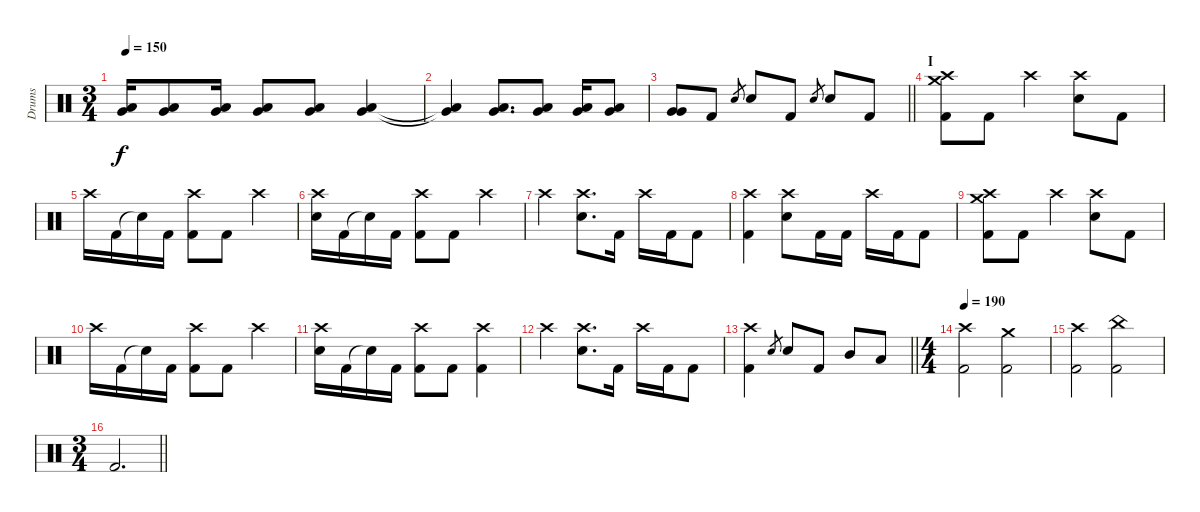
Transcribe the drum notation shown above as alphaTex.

\track ("Drums" "Drums") {instrument percussion}
\staff {score}
\articulation defaults
\ts (3 4)
\tempo 150
\clef neutral
\ks c
("Very Low Tom (hit)" "Low Floor Tom (hit)").16{bu 120 dy f} ("Very Low Tom (hit)" "Low Floor Tom (hit)").8{bu 120} ("Very Low Tom (hit)" "Low Floor Tom (hit)").16{bu 120} ("Very Low Tom (hit)" "Low Floor Tom (hit)").8{bu 120} ("Very Low Tom (hit)" "Low Floor Tom (hit)").8{bu 120} ("Very Low Tom (hit)" "Low Floor Tom (hit)").4{bu 120} |
("Very Low Tom (hit)"{t} "Low Floor Tom (hit)"{t}).4{bu 120} ("Very Low Tom (hit)" "Low Floor Tom (hit)").8{d bu 120} ("Very Low Tom (hit)" "Low Floor Tom (hit)").8{bu 120} ("Very Low Tom (hit)" "Low Floor Tom (hit)").16{bu 120} ("Very Low Tom (hit)" "Low Floor Tom (hit)").8{bu 120} |
\barLineRight lightlight
("Very Low Tom (hit)" "Very Low Tom (hit)").8{bu 120} "Kick (hit) 2".8 "Electric Snare (hit)".8{gr} "Electric Snare (hit)".8 "Kick (hit) 2".8 "Electric Snare (hit)".8{gr} "Electric Snare (hit)".8 "Kick (hit) 2".8 |
\section ("" "I")
("Crash medium (hit)" "Crash high (hit)" "Kick (hit) 2").8 "Kick (hit) 2".8 "Crash high (hit)".4 ("Crash high (hit)" "Electric Snare (hit)").8 "Kick (hit) 2".8 |
"Crash high (hit)".16 "Kick (hit) 2".16 "Snare (hit)"{t}.16 "Kick (hit) 2".16 ("Crash high (hit)" "Kick (hit) 2").8 "Kick (hit) 2".8 "Crash high (hit)".4 |
("Crash high (hit)" "Electric Snare (hit)").16 "Kick (hit) 2".16 "Snare (hit)"{t}.16 "Kick (hit) 2".16 ("Crash high (hit)" "Kick (hit) 2").8 "Kick (hit) 2".8 "Crash high (hit)".4 |
"Crash high (hit)".4 ("Crash high (hit)" "Electric Snare (hit)").8{d} "Kick (hit) 2".16 "Crash high (hit)".16 "Kick (hit) 2".16 "Kick (hit) 2".8 |
("Crash high (hit)" "Kick (hit) 2").4 ("Crash high (hit)" "Electric Snare (hit)").8 "Kick (hit) 2".16 "Kick (hit) 2".16 "Crash high (hit)".16 "Kick (hit) 2".16 "Kick (hit) 2".8 |
("Crash medium (hit)" "Crash high (hit)" "Kick (hit) 2").8 "Kick (hit) 2".8 "Crash high (hit)".4 ("Crash high (hit)" "Electric Snare (hit)").8 "Kick (hit) 2".8 |
"Crash high (hit)".16 "Kick (hit) 2".16 "Snare (hit)"{t}.16 "Kick (hit) 2".16 ("Crash high (hit)" "Kick (hit) 2").8 "Kick (hit) 2".8 "Crash high (hit)".4 |
("Crash high (hit)" "Electric Snare (hit)").16 "Kick (hit) 2".16 "Snare (hit)"{t}.16 "Kick (hit) 2".16 ("Crash high (hit)" "Kick (hit) 2").8 "Kick (hit) 2".8 ("Crash high (hit)" "Kick (hit) 2").4 |
"Crash high (hit)".4 ("Crash high (hit)" "Electric Snare (hit)").8{d} "Kick (hit) 2".16 "Crash high (hit)".16 "Kick (hit) 2".16 "Kick (hit) 2".8 |
\barLineRight lightlight
("Crash high (hit)" "Kick (hit) 2").4 "Electric Snare (hit)".8{gr} "Electric Snare (hit)".8 "Kick (hit) 2".8 "Mid Tom (hit)".8 "Low Tom (hit)".8 |
\ts (4 4)
\section ("" "")
\tempo 190
("Crash high (hit)" "Kick (hit) 2").2 ("Crash medium (hit)" "Kick (hit) 2").2 |
("Crash high (hit)" "Kick (hit) 2").2 ("China (hit)" "Kick (hit) 2").2 |
\ts (3 4)
\barLineRight lightlight "Kick (hit) 2".2{d}
